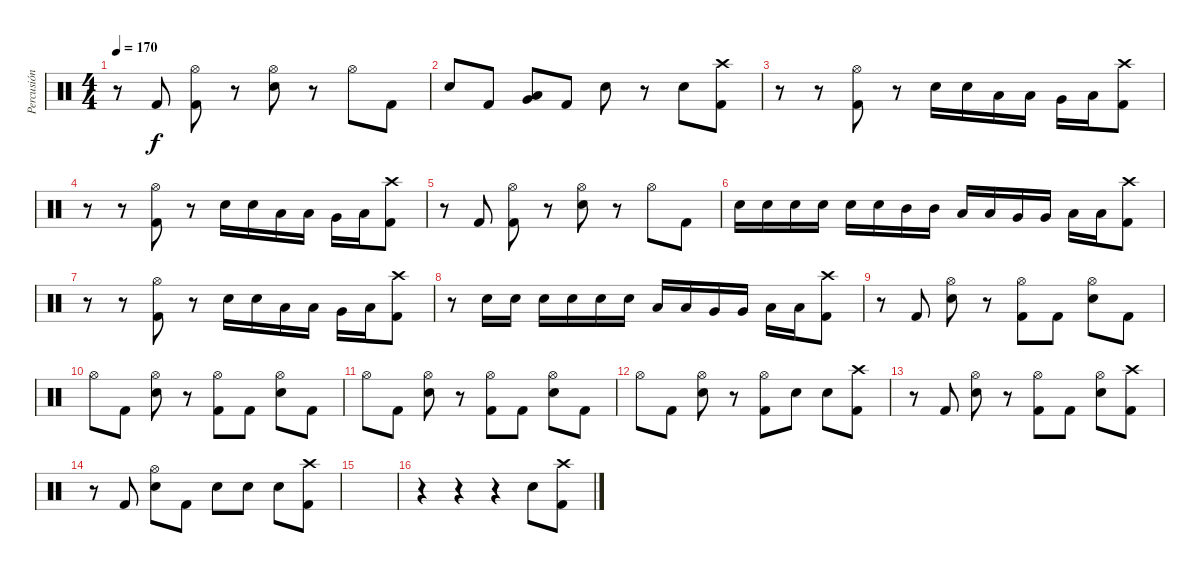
\track ("Percusión" "Percusión") {instrument percussion}
\staff {score}
\articulation defaults
\ts (4 4)
\tempo 170
\clef neutral
\ks c
r.8{dy f} "Kick (hit) 2".8 ("Kick (hit) 2" "Hi-Hat (open)").8 r.8 ("Snare (hit) 2" "Hi-Hat (open)").8 r.8 "Hi-Hat (open)".8 "Kick (hit) 2".8 |
"Snare (hit) 2".8 "Kick (hit) 2".8 ("Low Tom (hit)" "Very Low Tom (hit)").8 "Kick (hit) 2".8 "Snare (hit) 2".8 r.8 "Snare (hit) 2".8 ("Kick (hit) 2" "Crash high (hit)").8 |
r.8 r.8 ("Kick (hit) 2" "Hi-Hat (open)").8 r.8 "Snare (hit) 2".16 "Snare (hit) 2".16 "Low Tom (hit)".16 "Low Tom (hit)".16 "Very Low Tom (hit)".16 "Low Floor Tom (hit)".16 ("Kick (hit) 2" "Crash high (hit)").8 |
r.8 r.8 ("Kick (hit) 2" "Hi-Hat (open)").8 r.8 "Snare (hit) 2".16 "Snare (hit) 2".16 "Low Tom (hit)".16 "Low Tom (hit)".16 "Very Low Tom (hit)".16 "Low Floor Tom (hit)".16 ("Kick (hit) 2" "Crash high (hit)").8 |
r.8 "Kick (hit) 2".8 ("Kick (hit) 2" "Hi-Hat (open)").8 r.8 ("Snare (hit) 2" "Hi-Hat (open)").8 r.8 "Hi-Hat (open)".8 "Kick (hit) 2".8 |
"Snare (hit) 2".16 "Snare (hit) 2".16 "Snare (hit) 2".16 "Snare (hit) 2".16 "Snare (hit) 2".16 "Snare (hit) 2".16 "Mid Tom (hit)".16 "Mid Tom (hit)".16 "Low Tom (hit)".16 "Low Tom (hit)".16 "Very Low Tom (hit)".16 "Very Low Tom (hit)".16 "Low Floor Tom (hit)".16 "Low Floor Tom (hit)".16 ("Kick (hit) 2" "Crash high (hit)").8 |
r.8 r.8 ("Kick (hit) 2" "Hi-Hat (open)").8 r.8 "Snare (hit) 2".16 "Snare (hit) 2".16 "Low Tom (hit)".16 "Low Tom (hit)".16 "Very Low Tom (hit)".16 "Low Floor Tom (hit)".16 ("Kick (hit) 2" "Crash high (hit)").8 |
r.8 "Snare (hit) 2".16 "Snare (hit) 2".16 "Snare (hit) 2".16 "Snare (hit) 2".16 "Snare (hit) 2".16 "Snare (hit) 2".16 "Low Tom (hit)".16 "Low Tom (hit)".16 "Very Low Tom (hit)".16 "Very Low Tom (hit)".16 "Low Floor Tom (hit)".16 "Low Floor Tom (hit)".16 ("Kick (hit) 2" "Crash high (hit)").8 |
r.8 "Kick (hit) 2".8 ("Snare (hit) 2" "Hi-Hat (open)").8 r.8 ("Kick (hit) 2" "Hi-Hat (open)").8 "Kick (hit) 2".8 ("Snare (hit) 2" "Hi-Hat (open)").8 "Kick (hit) 2".8 |
"Hi-Hat (open)".8 "Kick (hit) 2".8 ("Snare (hit) 2" "Hi-Hat (open)").8 r.8 ("Kick (hit) 2" "Hi-Hat (open)").8 "Kick (hit) 2".8 ("Snare (hit) 2" "Hi-Hat (open)").8 "Kick (hit) 2".8 |
"Hi-Hat (open)".8 "Kick (hit) 2".8 ("Snare (hit) 2" "Hi-Hat (open)").8 r.8 ("Kick (hit) 2" "Hi-Hat (open)").8 "Kick (hit) 2".8 ("Snare (hit) 2" "Hi-Hat (open)").8 "Kick (hit) 2".8 |
"Hi-Hat (open)".8 "Kick (hit) 2".8 ("Snare (hit) 2" "Hi-Hat (open)").8 r.8 ("Kick (hit) 2" "Hi-Hat (open)").8 "Snare (hit) 2".8 "Snare (hit) 2".8 ("Kick (hit) 2" "Crash high (hit)").8 |
r.8 "Kick (hit) 2".8 ("Snare (hit) 2" "Hi-Hat (open)").8 r.8 ("Kick (hit) 2" "Hi-Hat (open)").8 "Kick (hit) 2".8 ("Snare (hit) 2" "Hi-Hat (open)").8 ("Kick (hit) 2" "Crash high (hit)").8 |
r.8 "Kick (hit) 2".8 ("Snare (hit) 2" "Hi-Hat (open)").8 "Kick (hit) 2".8 "Snare (hit) 2".8 "Snare (hit) 2".8 "Snare (hit) 2".8 ("Kick (hit) 2" "Crash high (hit)").8 |
|
r.4 r.4 r.4 "Snare (hit) 2".8 ("Kick (hit) 2" "Crash high (hit)").8
